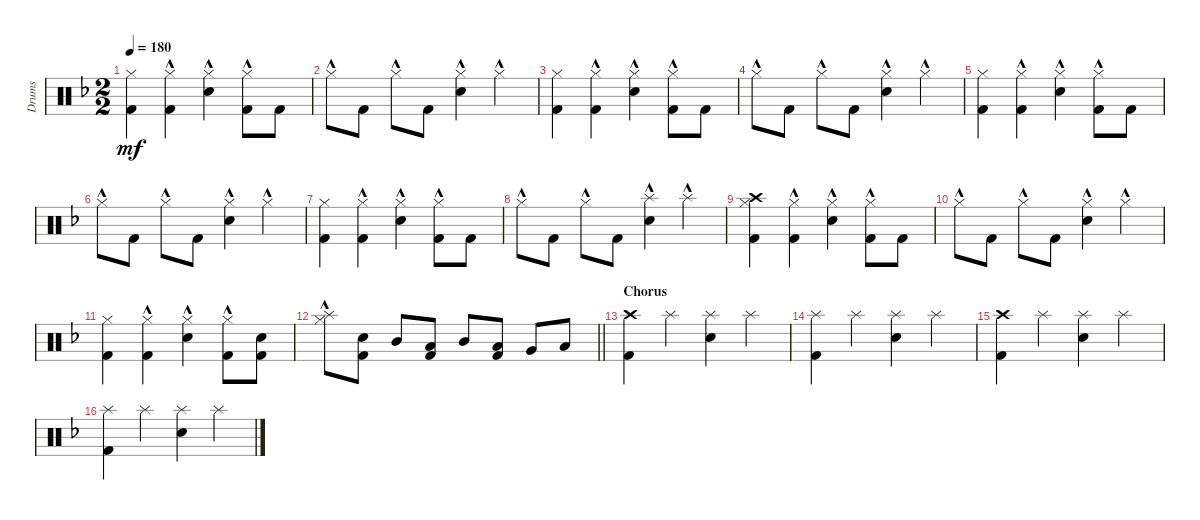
\track ("Drums" "Drums") {instrument percussion}
\staff {score}
\articulation defaults
\ts (2 2)
\tempo 180
\clef neutral
\ks dminor
("Hi-Hat (closed)" "Kick (hit) 2").4{dy mf} ("Hi-Hat (closed)"{hac} "Kick (hit) 2").4 ("Hi-Hat (closed)"{hac} "Snare (hit) 2").4 ("Hi-Hat (closed)"{hac} "Kick (hit) 2").8 "Kick (hit) 2".8 |
"Hi-Hat (closed)"{hac}.8 "Kick (hit) 2".8 "Hi-Hat (closed)"{hac}.8 "Kick (hit) 2".8 ("Hi-Hat (closed)"{hac} "Snare (hit) 2").4 "Hi-Hat (closed)"{hac}.4 |
("Hi-Hat (closed)" "Kick (hit) 2").4 ("Hi-Hat (closed)"{hac} "Kick (hit) 2").4 ("Hi-Hat (closed)"{hac} "Snare (hit) 2").4 ("Hi-Hat (closed)"{hac} "Kick (hit) 2").8 "Kick (hit) 2".8 |
"Hi-Hat (closed)"{hac}.8 "Kick (hit) 2".8 "Hi-Hat (closed)"{hac}.8 "Kick (hit) 2".8 ("Hi-Hat (closed)"{hac} "Snare (hit) 2").4 "Hi-Hat (closed)"{hac}.4 |
("Hi-Hat (closed)" "Kick (hit) 2").4 ("Hi-Hat (closed)"{hac} "Kick (hit) 2").4 ("Hi-Hat (closed)"{hac} "Snare (hit) 2").4 ("Hi-Hat (closed)"{hac} "Kick (hit) 2").8 "Kick (hit) 2".8 |
"Hi-Hat (closed)"{hac}.8 "Kick (hit) 2".8 "Hi-Hat (closed)"{hac}.8 "Kick (hit) 2".8 ("Hi-Hat (closed)"{hac} "Snare (hit) 2").4 "Hi-Hat (closed)"{hac}.4 |
("Hi-Hat (closed)" "Kick (hit) 2").4 ("Hi-Hat (closed)"{hac} "Kick (hit) 2").4 ("Hi-Hat (closed)"{hac} "Snare (hit) 2").4 ("Hi-Hat (closed)"{hac} "Kick (hit) 2").8 "Kick (hit) 2".8 |
"Hi-Hat (closed)"{hac}.8 "Kick (hit) 2".8 "Hi-Hat (closed)"{hac}.8 "Kick (hit) 2".8 ("Splash (hit)"{hac} "Snare (hit) 2").4 "Splash (hit)"{hac}.4 |
("Hi-Hat (closed)" "Kick (hit) 2" "Crash high (hit)").4 ("Hi-Hat (closed)"{hac} "Kick (hit) 2").4 ("Hi-Hat (closed)"{hac} "Snare (hit) 2").4 ("Hi-Hat (closed)"{hac} "Kick (hit) 2").8 "Kick (hit) 2".8 |
"Hi-Hat (closed)"{hac}.8 "Kick (hit) 2".8 "Hi-Hat (closed)"{hac}.8 "Kick (hit) 2".8 ("Hi-Hat (closed)"{hac} "Snare (hit) 2").4 "Hi-Hat (closed)"{hac}.4 |
("Hi-Hat (closed)" "Kick (hit) 2").4 ("Hi-Hat (closed)"{hac} "Kick (hit) 2").4 ("Hi-Hat (closed)"{hac} "Snare (hit) 2").4 ("Hi-Hat (closed)"{hac} "Kick (hit) 2").8 ("Snare (hit) 2" "Kick (hit) 2").8 |
\barLineRight lightlight
("Hi-Hat (closed)"{hac} "Splash (hit)").8 ("Snare (hit) 2" "Kick (hit) 2").8 "Mid Tom (hit)".8 ("Low Tom (hit)" "Kick (hit) 2").8 "Mid Tom (hit)".8 ("Low Tom (hit)" "Kick (hit) 2").8 "Very Low Tom (hit)".8 "Low Floor Tom (hit)".8 |
\section ("" "Chorus")
("Crash high (hit)" "Kick (hit) 2").4 "Splash (hit)".4 ("Splash (hit)" "Snare (hit) 2").4 "Splash (hit)".4 |
("Splash (hit)" "Kick (hit) 2").4 "Splash (hit)".4 ("Splash (hit)" "Snare (hit) 2").4 "Splash (hit)".4 |
("Crash high (hit)" "Kick (hit) 2").4 "Splash (hit)".4 ("Splash (hit)" "Snare (hit) 2").4 "Splash (hit)".4 |
("Splash (hit)" "Kick (hit) 2").4 "Splash (hit)".4 ("Splash (hit)" "Snare (hit) 2").4 "Splash (hit)".4
